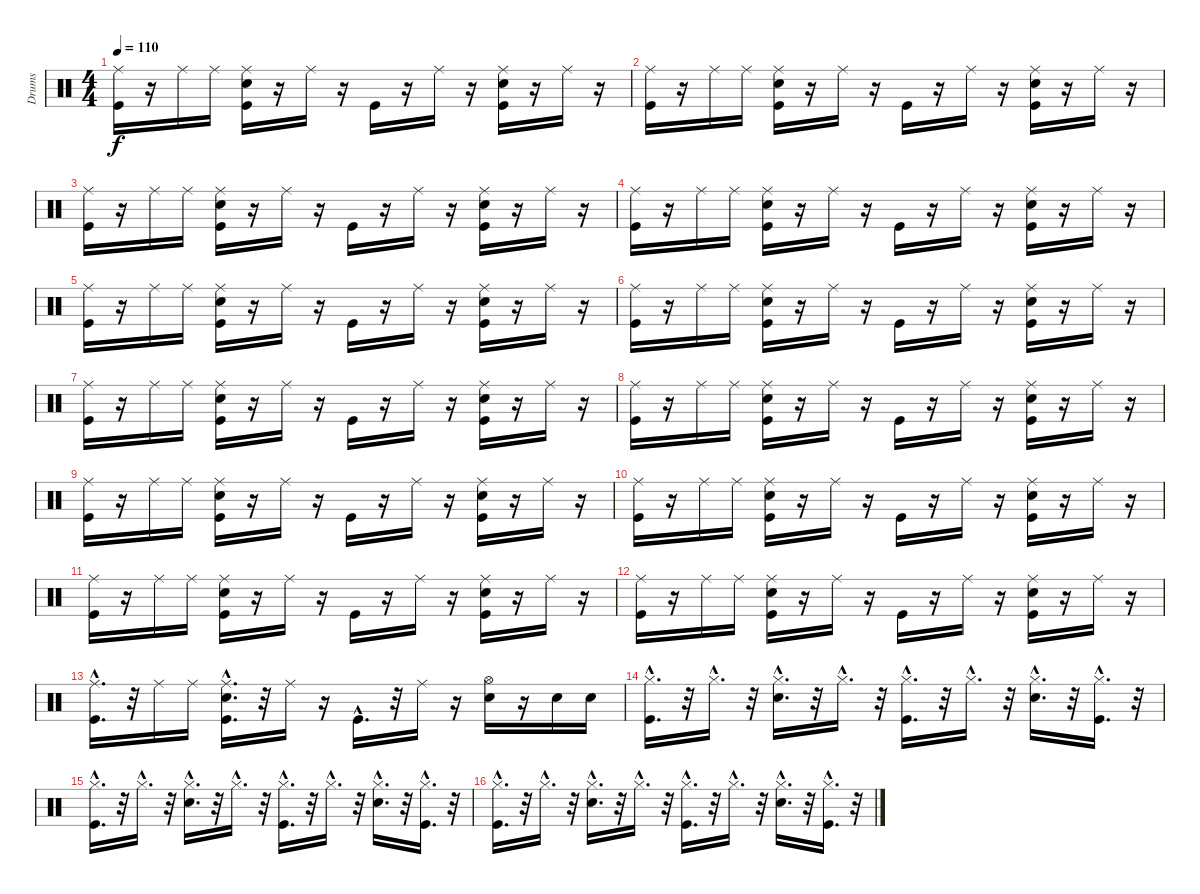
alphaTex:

\track ("Drums" "Drums") {instrument percussion}
\staff {score}
\articulation defaults
\ts (4 4)
\tempo 110
\clef neutral
\ks c
("Kick (hit)" "Ride (middle)").16{dy f} r.16 "Ride (middle)".16 "Ride (middle)".16 ("Snare (hit) 2" "Ride (middle)" "Kick (hit)").16 r.16 "Ride (middle)".16 r.16 "Kick (hit)".16 r.16 "Ride (middle)".16 r.16 ("Snare (hit) 2" "Ride (middle)" "Kick (hit)").16 r.16 "Ride (middle)".16 r.16 |
("Kick (hit)" "Ride (middle)").16 r.16 "Ride (middle)".16 "Ride (middle)".16 ("Snare (hit) 2" "Ride (middle)" "Kick (hit)").16 r.16 "Ride (middle)".16 r.16 "Kick (hit)".16 r.16 "Ride (middle)".16 r.16 ("Snare (hit) 2" "Ride (middle)" "Kick (hit)").16 r.16 "Ride (middle)".16 r.16 |
("Kick (hit)" "Ride (middle)").16 r.16 "Ride (middle)".16 "Ride (middle)".16 ("Snare (hit) 2" "Ride (middle)" "Kick (hit)").16 r.16 "Ride (middle)".16 r.16 "Kick (hit)".16 r.16 "Ride (middle)".16 r.16 ("Snare (hit) 2" "Ride (middle)" "Kick (hit)").16 r.16 "Ride (middle)".16 r.16 |
("Kick (hit)" "Ride (middle)").16 r.16 "Ride (middle)".16 "Ride (middle)".16 ("Snare (hit) 2" "Ride (middle)" "Kick (hit)").16 r.16 "Ride (middle)".16 r.16 "Kick (hit)".16 r.16 "Ride (middle)".16 r.16 ("Snare (hit) 2" "Ride (middle)" "Kick (hit)").16 r.16 "Ride (middle)".16 r.16 |
("Kick (hit)" "Ride (middle)").16 r.16 "Ride (middle)".16 "Ride (middle)".16 ("Snare (hit) 2" "Ride (middle)" "Kick (hit)").16 r.16 "Ride (middle)".16 r.16 "Kick (hit)".16 r.16 "Ride (middle)".16 r.16 ("Snare (hit) 2" "Ride (middle)" "Kick (hit)").16 r.16 "Ride (middle)".16 r.16 |
("Kick (hit)" "Ride (middle)").16 r.16 "Ride (middle)".16 "Ride (middle)".16 ("Snare (hit) 2" "Ride (middle)" "Kick (hit)").16 r.16 "Ride (middle)".16 r.16 "Kick (hit)".16 r.16 "Ride (middle)".16 r.16 ("Snare (hit) 2" "Ride (middle)" "Kick (hit)").16 r.16 "Ride (middle)".16 r.16 |
("Kick (hit)" "Ride (middle)").16 r.16 "Ride (middle)".16 "Ride (middle)".16 ("Snare (hit) 2" "Ride (middle)" "Kick (hit)").16 r.16 "Ride (middle)".16 r.16 "Kick (hit)".16 r.16 "Ride (middle)".16 r.16 ("Snare (hit) 2" "Ride (middle)" "Kick (hit)").16 r.16 "Ride (middle)".16 r.16 |
("Kick (hit)" "Ride (middle)").16 r.16 "Ride (middle)".16 "Ride (middle)".16 ("Snare (hit) 2" "Ride (middle)" "Kick (hit)").16 r.16 "Ride (middle)".16 r.16 "Kick (hit)".16 r.16 "Ride (middle)".16 r.16 ("Snare (hit) 2" "Ride (middle)" "Kick (hit)").16 r.16 "Ride (middle)".16 r.16 |
("Kick (hit)" "Ride (middle)").16 r.16 "Ride (middle)".16 "Ride (middle)".16 ("Snare (hit) 2" "Ride (middle)" "Kick (hit)").16 r.16 "Ride (middle)".16 r.16 "Kick (hit)".16 r.16 "Ride (middle)".16 r.16 ("Snare (hit) 2" "Ride (middle)" "Kick (hit)").16 r.16 "Ride (middle)".16 r.16 |
("Kick (hit)" "Ride (middle)").16 r.16 "Ride (middle)".16 "Ride (middle)".16 ("Snare (hit) 2" "Ride (middle)" "Kick (hit)").16 r.16 "Ride (middle)".16 r.16 "Kick (hit)".16 r.16 "Ride (middle)".16 r.16 ("Snare (hit) 2" "Ride (middle)" "Kick (hit)").16 r.16 "Ride (middle)".16 r.16 |
("Kick (hit)" "Ride (middle)").16 r.16 "Ride (middle)".16 "Ride (middle)".16 ("Snare (hit) 2" "Ride (middle)" "Kick (hit)").16 r.16 "Ride (middle)".16 r.16 "Kick (hit)".16 r.16 "Ride (middle)".16 r.16 ("Snare (hit) 2" "Ride (middle)" "Kick (hit)").16 r.16 "Ride (middle)".16 r.16 |
("Kick (hit)" "Ride (middle)").16 r.16 "Ride (middle)".16 "Ride (middle)".16 ("Snare (hit) 2" "Ride (middle)" "Kick (hit)").16 r.16 "Ride (middle)".16 r.16 "Kick (hit)".16 r.16 "Ride (middle)".16 r.16 ("Snare (hit) 2" "Ride (middle)" "Kick (hit)").16 r.16 "Ride (middle)".16 r.16 |
("Ride (middle)" "Kick (hit)"{hac}).16{d} r.32 "Ride (middle)".16 "Ride (middle)".16 ("Snare (hit) 2"{hac} "Ride (middle)" "Kick (hit)"{hac}).16{d} r.32 "Ride (middle)".16 r.16 "Kick (hit)"{hac}.16{d} r.32 "Ride (middle)".16 r.16 ("Hi-Hat (open)" "Snare (hit) 2").16 r.16 "Snare (hit) 2".16 "Snare (hit) 2".16 |
("Hi-Hat (closed)"{hac} "Kick (hit)"{hac}).16{d} r.32 "Hi-Hat (closed)"{hac}.16{d} r.32 ("Snare (hit) 2"{hac} "Hi-Hat (closed)"{hac}).16{d} r.32 "Hi-Hat (closed)"{hac}.16{d} r.32 ("Hi-Hat (closed)"{hac} "Kick (hit)"{hac}).16{d} r.32 "Hi-Hat (closed)"{hac}.16{d} r.32 ("Snare (hit) 2"{hac} "Hi-Hat (closed)"{hac}).16{d} r.32 ("Kick (hit)"{hac} "Hi-Hat (closed)"{hac}).16{d} r.32 |
("Hi-Hat (closed)"{hac} "Kick (hit)"{hac}).16{d} r.32 "Hi-Hat (closed)"{hac}.16{d} r.32 ("Snare (hit) 2"{hac} "Hi-Hat (closed)"{hac}).16{d} r.32 "Hi-Hat (closed)"{hac}.16{d} r.32 ("Hi-Hat (closed)"{hac} "Kick (hit)"{hac}).16{d} r.32 "Hi-Hat (closed)"{hac}.16{d} r.32 ("Snare (hit) 2"{hac} "Hi-Hat (closed)"{hac}).16{d} r.32 ("Kick (hit)"{hac} "Hi-Hat (closed)"{hac}).16{d} r.32 |
("Hi-Hat (closed)"{hac} "Kick (hit)"{hac}).16{d} r.32 "Hi-Hat (closed)"{hac}.16{d} r.32 ("Snare (hit) 2"{hac} "Hi-Hat (closed)"{hac}).16{d} r.32 "Hi-Hat (closed)"{hac}.16{d} r.32 ("Hi-Hat (closed)"{hac} "Kick (hit)"{hac}).16{d} r.32 "Hi-Hat (closed)"{hac}.16{d} r.32 ("Snare (hit) 2"{hac} "Hi-Hat (closed)"{hac}).16{d} r.32 ("Kick (hit)"{hac} "Hi-Hat (closed)"{hac}).16{d} r.32
